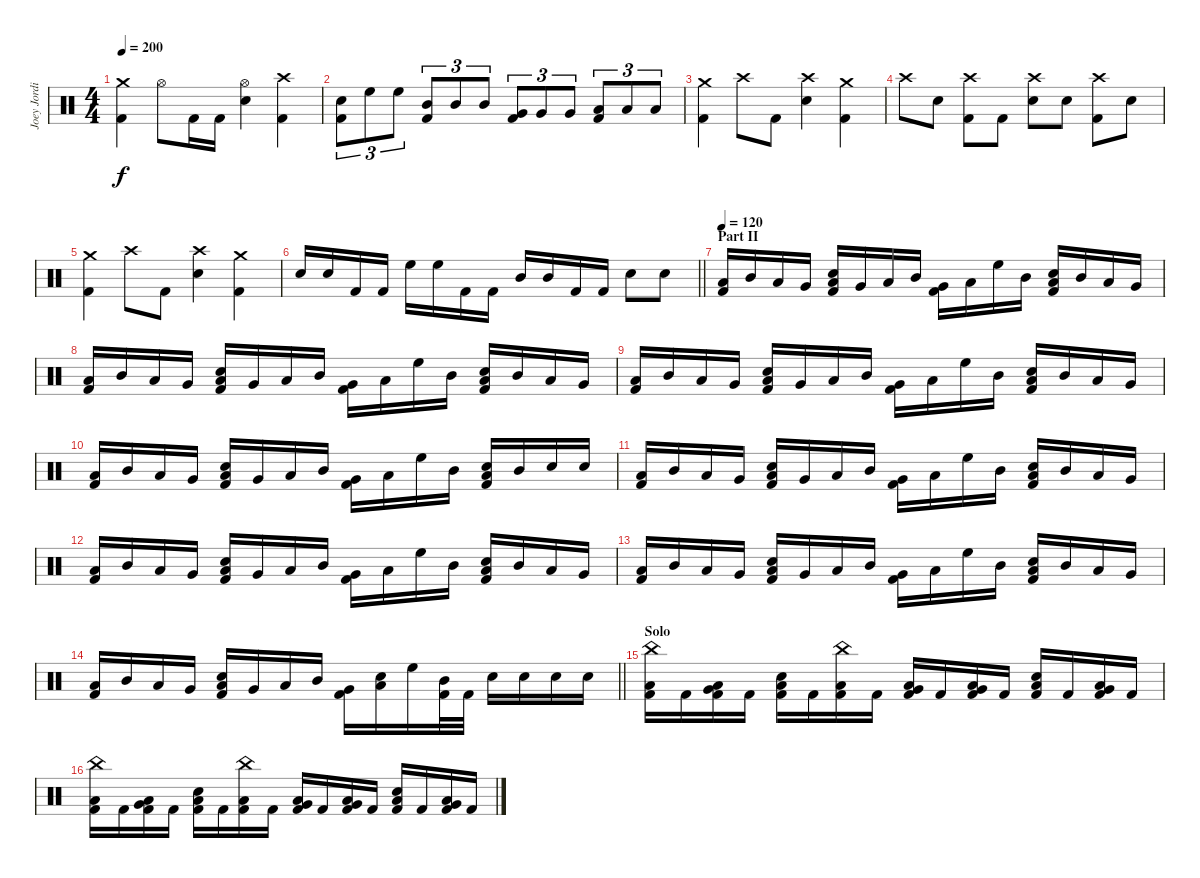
\track ("Joey Jordison" "Joey Jordi") {instrument percussion}
\staff {score}
\articulation defaults
\ts (4 4)
\tempo 200
\clef neutral
\ks c
("Crash medium (hit)" "Kick (hit) 2").4{dy f} "Hi-Hat (open)".8 "Kick (hit) 2".16 "Kick (hit) 2".16 ("Hi-Hat (open)" "Electric Snare (hit)").4 ("Crash high (hit)" "Kick (hit) 2").4 |
("Electric Snare (hit)" "Kick (hit) 2").8{tu (3 2)} "High Floor Tom (hit)".8{tu (3 2)} "High Floor Tom (hit)".8{tu (3 2)} ("Mid Tom (hit)" "Kick (hit) 2").8{tu (3 2)} "Mid Tom (hit)".8{tu (3 2)} "Mid Tom (hit)".8{tu (3 2)} ("Very Low Tom (hit)" "Kick (hit) 2").8{tu (3 2)} "Very Low Tom (hit)".8{tu (3 2)} "Very Low Tom (hit)".8{tu (3 2)} ("Low Floor Tom (hit)" "Kick (hit) 2").8{tu (3 2)} "Low Floor Tom (hit)".8{tu (3 2)} "Low Floor Tom (hit)".8{tu (3 2)} |
("Crash medium (hit)" "Kick (hit) 2").4 "Crash high (hit)".8 "Kick (hit) 2".8 ("Crash high (hit)" "Electric Snare (hit)").4 ("Crash medium (hit)" "Kick (hit) 2").4 |
"Crash high (hit)".8 "Electric Snare (hit)".8 ("Crash high (hit)" "Kick (hit) 2").8 "Kick (hit) 2".8 ("Crash high (hit)" "Electric Snare (hit)").8 "Electric Snare (hit)".8 ("Crash high (hit)" "Kick (hit) 2").8 "Electric Snare (hit)".8 |
("Crash medium (hit)" "Kick (hit) 2").4 "Crash high (hit)".8 "Kick (hit) 2".8 ("Crash high (hit)" "Electric Snare (hit)").4 ("Crash medium (hit)" "Kick (hit) 2").4 |
\barLineRight lightlight "Electric Snare (hit)".16 "Electric Snare (hit)".16 "Kick (hit) 2".16 "Kick (hit) 2".16 "High Floor Tom (hit)".16 "High Floor Tom (hit)".16 "Kick (hit) 2".16 "Kick (hit) 2".16 "Mid Tom (hit)".16 "Mid Tom (hit)".16 "Kick (hit) 2".16 "Kick (hit) 2".16 "Electric Snare (hit)".8 "Electric Snare (hit)".8
|
\section ("" "Part II")
\tempo 120
("Low Floor Tom (hit)" "Kick (hit) 2").16 "Mid Tom (hit)".16 "Low Floor Tom (hit)".16 "Very Low Tom (hit)".16 ("Low Floor Tom (hit)" "Electric Snare (hit)" "Kick (hit) 2").16 "Very Low Tom (hit)".16 "Low Floor Tom (hit)".16 "Mid Tom (hit)".16 ("Very Low Tom (hit)" "Kick (hit) 2").16 "Low Floor Tom (hit)".16 "High Floor Tom (hit)".16 "Mid Tom (hit)".16 ("Low Floor Tom (hit)" "Electric Snare (hit)" "Kick (hit) 2").16 "Mid Tom (hit)".16 "Low Floor Tom (hit)".16 "Very Low Tom (hit)".16 |
("Low Floor Tom (hit)" "Kick (hit) 2").16 "Mid Tom (hit)".16 "Low Floor Tom (hit)".16 "Very Low Tom (hit)".16 ("Low Floor Tom (hit)" "Electric Snare (hit)" "Kick (hit) 2").16 "Very Low Tom (hit)".16 "Low Floor Tom (hit)".16 "Mid Tom (hit)".16 ("Very Low Tom (hit)" "Kick (hit) 2").16 "Low Floor Tom (hit)".16 "High Floor Tom (hit)".16 "Mid Tom (hit)".16 ("Low Floor Tom (hit)" "Electric Snare (hit)" "Kick (hit) 2").16 "Mid Tom (hit)".16 "Low Floor Tom (hit)".16 "Very Low Tom (hit)".16 |
("Low Floor Tom (hit)" "Kick (hit) 2").16 "Mid Tom (hit)".16 "Low Floor Tom (hit)".16 "Very Low Tom (hit)".16 ("Low Floor Tom (hit)" "Electric Snare (hit)" "Kick (hit) 2").16 "Very Low Tom (hit)".16 "Low Floor Tom (hit)".16 "Mid Tom (hit)".16 ("Very Low Tom (hit)" "Kick (hit) 2").16 "Low Floor Tom (hit)".16 "High Floor Tom (hit)".16 "Mid Tom (hit)".16 ("Low Floor Tom (hit)" "Electric Snare (hit)" "Kick (hit) 2").16 "Mid Tom (hit)".16 "Low Floor Tom (hit)".16 "Very Low Tom (hit)".16 |
("Low Floor Tom (hit)" "Kick (hit) 2").16 "Mid Tom (hit)".16 "Low Floor Tom (hit)".16 "Very Low Tom (hit)".16 ("Low Floor Tom (hit)" "Electric Snare (hit)" "Kick (hit) 2").16 "Very Low Tom (hit)".16 "Low Floor Tom (hit)".16 "Mid Tom (hit)".16 ("Very Low Tom (hit)" "Kick (hit) 2").16 "Low Floor Tom (hit)".16 "High Floor Tom (hit)".16 "Mid Tom (hit)".16 ("Low Floor Tom (hit)" "Electric Snare (hit)" "Kick (hit) 2").16 "Mid Tom (hit)".16 "Electric Snare (hit)".16 "Electric Snare (hit)".16 |
("Low Floor Tom (hit)" "Kick (hit) 2").16 "Mid Tom (hit)".16 "Low Floor Tom (hit)".16 "Very Low Tom (hit)".16 ("Low Floor Tom (hit)" "Electric Snare (hit)" "Kick (hit) 2").16 "Very Low Tom (hit)".16 "Low Floor Tom (hit)".16 "Mid Tom (hit)".16 ("Very Low Tom (hit)" "Kick (hit) 2").16 "Low Floor Tom (hit)".16 "High Floor Tom (hit)".16 "Mid Tom (hit)".16 ("Low Floor Tom (hit)" "Electric Snare (hit)" "Kick (hit) 2").16 "Mid Tom (hit)".16 "Low Floor Tom (hit)".16 "Very Low Tom (hit)".16 |
("Low Floor Tom (hit)" "Kick (hit) 2").16 "Mid Tom (hit)".16 "Low Floor Tom (hit)".16 "Very Low Tom (hit)".16 ("Low Floor Tom (hit)" "Electric Snare (hit)" "Kick (hit) 2").16 "Very Low Tom (hit)".16 "Low Floor Tom (hit)".16 "Mid Tom (hit)".16 ("Very Low Tom (hit)" "Kick (hit) 2").16 "Low Floor Tom (hit)".16 "High Floor Tom (hit)".16 "Mid Tom (hit)".16 ("Low Floor Tom (hit)" "Electric Snare (hit)" "Kick (hit) 2").16 "Mid Tom (hit)".16 "Low Floor Tom (hit)".16 "Very Low Tom (hit)".16 |
("Low Floor Tom (hit)" "Kick (hit) 2").16 "Mid Tom (hit)".16 "Low Floor Tom (hit)".16 "Very Low Tom (hit)".16 ("Low Floor Tom (hit)" "Electric Snare (hit)" "Kick (hit) 2").16 "Very Low Tom (hit)".16 "Low Floor Tom (hit)".16 "Mid Tom (hit)".16 ("Very Low Tom (hit)" "Kick (hit) 2").16 "Low Floor Tom (hit)".16 "High Floor Tom (hit)".16 "Mid Tom (hit)".16 ("Low Floor Tom (hit)" "Electric Snare (hit)" "Kick (hit) 2").16 "Mid Tom (hit)".16 "Low Floor Tom (hit)".16 "Very Low Tom (hit)".16 |
\barLineRight lightlight
("Low Floor Tom (hit)" "Kick (hit) 2").16 "Mid Tom (hit)".16 "Low Floor Tom (hit)".16 "Very Low Tom (hit)".16 ("Low Floor Tom (hit)" "Electric Snare (hit)" "Kick (hit) 2").16 "Very Low Tom (hit)".16 "Low Floor Tom (hit)".16 "Mid Tom (hit)".16 ("Very Low Tom (hit)" "Kick (hit) 2").16 ("Low Floor Tom (hit)" "Electric Snare (hit)").16 "High Floor Tom (hit)".16 ("Mid Tom (hit)" "Kick (hit) 2").32 "Kick (hit) 2".32 "Electric Snare (hit)".16 "Electric Snare (hit)".16 "Electric Snare (hit)".16 "Electric Snare (hit)".16 |
\section ("" "Solo")
("China (hit)" "Low Floor Tom (hit)" "Kick (hit) 2").16 "Kick (hit) 2".16 ("Low Floor Tom (hit)" "Very Low Tom (hit)" "Kick (hit) 2").16 "Kick (hit) 2".16 ("Low Floor Tom (hit)" "Electric Snare (hit)" "Kick (hit) 2").16 "Kick (hit) 2".16 ("China (hit)" "Low Floor Tom (hit)" "Kick (hit) 2").16 "Kick (hit) 2".16 ("Low Floor Tom (hit)" "Very Low Tom (hit)" "Kick (hit) 2").16 "Kick (hit) 2".16 ("Low Floor Tom (hit)" "Very Low Tom (hit)" "Kick (hit) 2").16 "Kick (hit) 2".16 ("Low Floor Tom (hit)" "Electric Snare (hit)" "Kick (hit) 2").16 "Kick (hit) 2".16 ("Low Floor Tom (hit)" "Very Low Tom (hit)" "Kick (hit) 2").16 "Kick (hit) 2".16 |
("China (hit)" "Low Floor Tom (hit)" "Kick (hit) 2").16 "Kick (hit) 2".16 ("Low Floor Tom (hit)" "Very Low Tom (hit)" "Kick (hit) 2").16 "Kick (hit) 2".16 ("Low Floor Tom (hit)" "Electric Snare (hit)" "Kick (hit) 2").16 "Kick (hit) 2".16 ("China (hit)" "Low Floor Tom (hit)" "Kick (hit) 2").16 "Kick (hit) 2".16 ("Low Floor Tom (hit)" "Very Low Tom (hit)" "Kick (hit) 2").16 "Kick (hit) 2".16 ("Low Floor Tom (hit)" "Very Low Tom (hit)" "Kick (hit) 2").16 "Kick (hit) 2".16 ("Low Floor Tom (hit)" "Electric Snare (hit)" "Kick (hit) 2").16 "Kick (hit) 2".16 ("Low Floor Tom (hit)" "Very Low Tom (hit)" "Kick (hit) 2").16 "Kick (hit) 2".16
